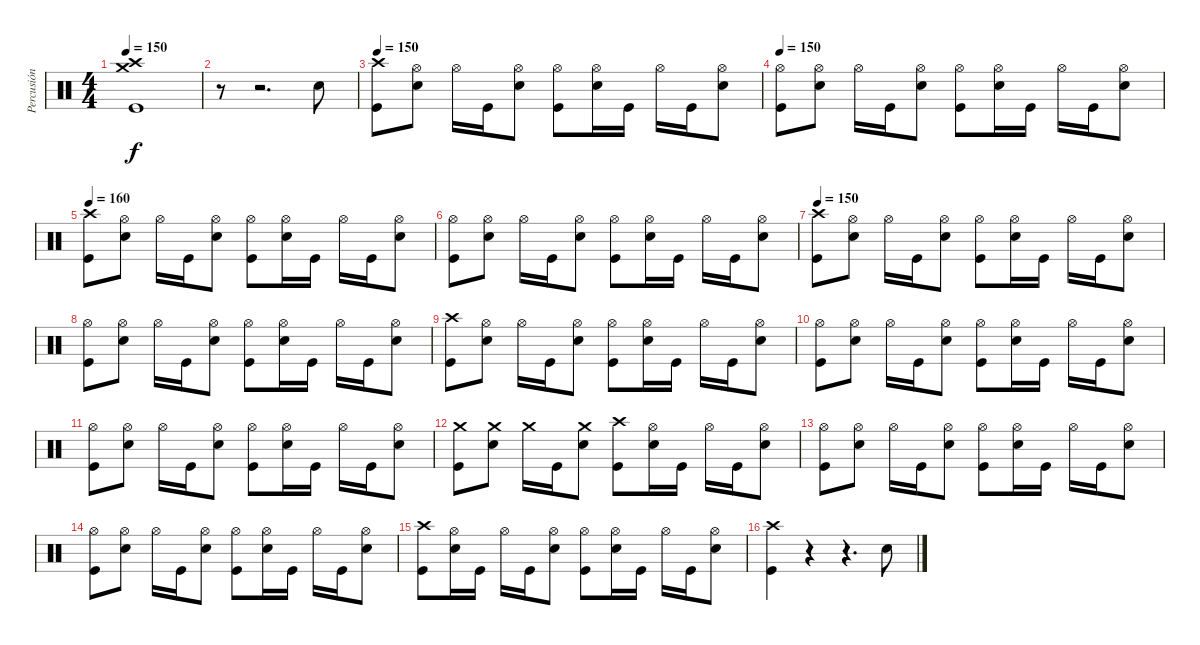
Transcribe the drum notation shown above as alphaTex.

\track ("Percusión" "Percusión") {instrument percussion}
\staff {score}
\articulation defaults
\ts (4 4)
\tempo 150
\clef neutral
\ks c
("Crash medium (hit)" "Crash high (hit)" "Kick (hit)").1{dy f} |
r.8 r.2{d} "Snare (hit) 2".8 |
\tempo 150
("Crash high (hit)" "Kick (hit)").8 ("Hi-Hat (open)" "Snare (hit) 2").8 "Hi-Hat (open)".16 "Kick (hit)".16 ("Hi-Hat (open)" "Snare (hit) 2").8 ("Hi-Hat (open)" "Kick (hit)").8 ("Hi-Hat (open)" "Snare (hit) 2").16 "Kick (hit)".16 "Hi-Hat (open)".16 "Kick (hit)".16 ("Hi-Hat (open)" "Snare (hit) 2").8 |
\tempo 150
("Hi-Hat (open)" "Kick (hit)").8 ("Hi-Hat (open)" "Snare (hit) 2").8 "Hi-Hat (open)".16 "Kick (hit)".16 ("Hi-Hat (open)" "Snare (hit) 2").8 ("Hi-Hat (open)" "Kick (hit)").8 ("Hi-Hat (open)" "Snare (hit) 2").16 "Kick (hit)".16 "Hi-Hat (open)".16 "Kick (hit)".16 ("Hi-Hat (open)" "Snare (hit) 2").8 |
\tempo 160
("Crash high (hit)" "Kick (hit)").8 ("Hi-Hat (open)" "Snare (hit) 2").8 "Hi-Hat (open)".16 "Kick (hit)".16 ("Hi-Hat (open)" "Snare (hit) 2").8 ("Hi-Hat (open)" "Kick (hit)").8 ("Hi-Hat (open)" "Snare (hit) 2").16 "Kick (hit)".16 "Hi-Hat (open)".16 "Kick (hit)".16 ("Hi-Hat (open)" "Snare (hit) 2").8 |
("Hi-Hat (open)" "Kick (hit)").8 ("Hi-Hat (open)" "Snare (hit) 2").8 "Hi-Hat (open)".16 "Kick (hit)".16 ("Hi-Hat (open)" "Snare (hit) 2").8 ("Hi-Hat (open)" "Kick (hit)").8 ("Hi-Hat (open)" "Snare (hit) 2").16 "Kick (hit)".16 "Hi-Hat (open)".16 "Kick (hit)".16 ("Hi-Hat (open)" "Snare (hit) 2").8 |
\tempo 150
("Crash high (hit)" "Kick (hit)").8 ("Hi-Hat (open)" "Snare (hit) 2").8 "Hi-Hat (open)".16 "Kick (hit)".16 ("Hi-Hat (open)" "Snare (hit) 2").8 ("Hi-Hat (open)" "Kick (hit)").8 ("Hi-Hat (open)" "Snare (hit) 2").16 "Kick (hit)".16 "Hi-Hat (open)".16 "Kick (hit)".16 ("Hi-Hat (open)" "Snare (hit) 2").8 |
("Hi-Hat (open)" "Kick (hit)").8 ("Hi-Hat (open)" "Snare (hit) 2").8 "Hi-Hat (open)".16 "Kick (hit)".16 ("Hi-Hat (open)" "Snare (hit) 2").8 ("Hi-Hat (open)" "Kick (hit)").8 ("Hi-Hat (open)" "Snare (hit) 2").16 "Kick (hit)".16 "Hi-Hat (open)".16 "Kick (hit)".16 ("Hi-Hat (open)" "Snare (hit) 2").8 |
("Crash high (hit)" "Kick (hit)").8 ("Hi-Hat (open)" "Snare (hit) 2").8 "Hi-Hat (open)".16 "Kick (hit)".16 ("Hi-Hat (open)" "Snare (hit) 2").8 ("Hi-Hat (open)" "Kick (hit)").8 ("Hi-Hat (open)" "Snare (hit) 2").16 "Kick (hit)".16 "Hi-Hat (open)".16 "Kick (hit)".16 ("Hi-Hat (open)" "Snare (hit) 2").8 |
("Hi-Hat (open)" "Kick (hit)").8 ("Hi-Hat (open)" "Snare (hit) 2").8 "Hi-Hat (open)".16 "Kick (hit)".16 ("Hi-Hat (open)" "Snare (hit) 2").8 ("Hi-Hat (open)" "Kick (hit)").8 ("Hi-Hat (open)" "Snare (hit) 2").16 "Kick (hit)".16 "Hi-Hat (open)".16 "Kick (hit)".16 ("Hi-Hat (open)" "Snare (hit) 2").8 |
("Hi-Hat (open)" "Kick (hit)").8 ("Hi-Hat (open)" "Snare (hit) 2").8 "Hi-Hat (open)".16 "Kick (hit)".16 ("Hi-Hat (open)" "Snare (hit) 2").8 ("Hi-Hat (open)" "Kick (hit)").8 ("Hi-Hat (open)" "Snare (hit) 2").16 "Kick (hit)".16 "Hi-Hat (open)".16 "Kick (hit)".16 ("Hi-Hat (open)" "Snare (hit) 2").8 |
("Crash medium (hit)" "Kick (hit)").8 ("Crash medium (hit)" "Snare (hit) 2").8 "Crash medium (hit)".16 "Kick (hit)".16 ("Crash medium (hit)" "Snare (hit) 2").8 ("Crash high (hit)" "Kick (hit)").8 ("Hi-Hat (open)" "Snare (hit) 2").16 "Kick (hit)".16 "Hi-Hat (open)".16 "Kick (hit)".16 ("Hi-Hat (open)" "Snare (hit) 2").8 |
("Hi-Hat (open)" "Kick (hit)").8 ("Hi-Hat (open)" "Snare (hit) 2").8 "Hi-Hat (open)".16 "Kick (hit)".16 ("Hi-Hat (open)" "Snare (hit) 2").8 ("Hi-Hat (open)" "Kick (hit)").8 ("Hi-Hat (open)" "Snare (hit) 2").16 "Kick (hit)".16 "Hi-Hat (open)".16 "Kick (hit)".16 ("Hi-Hat (open)" "Snare (hit) 2").8 |
("Hi-Hat (open)" "Kick (hit)").8 ("Hi-Hat (open)" "Snare (hit) 2").8 "Hi-Hat (open)".16 "Kick (hit)".16 ("Hi-Hat (open)" "Snare (hit) 2").8 ("Hi-Hat (open)" "Kick (hit)").8 ("Hi-Hat (open)" "Snare (hit) 2").16 "Kick (hit)".16 "Hi-Hat (open)".16 "Kick (hit)".16 ("Hi-Hat (open)" "Snare (hit) 2").8 |
("Crash high (hit)" "Kick (hit)").8 ("Hi-Hat (open)" "Snare (hit) 2").16 "Kick (hit)".16 "Hi-Hat (open)".16 "Kick (hit)".16 ("Hi-Hat (open)" "Snare (hit) 2").8 ("Hi-Hat (open)" "Kick (hit)").8 ("Hi-Hat (open)" "Snare (hit) 2").16 "Kick (hit)".16 "Hi-Hat (open)".16 "Kick (hit)".16 ("Hi-Hat (open)" "Snare (hit) 2").8 |
("Crash high (hit)" "Kick (hit)").4 r.4 r.4{d} "Snare (hit) 2".8
